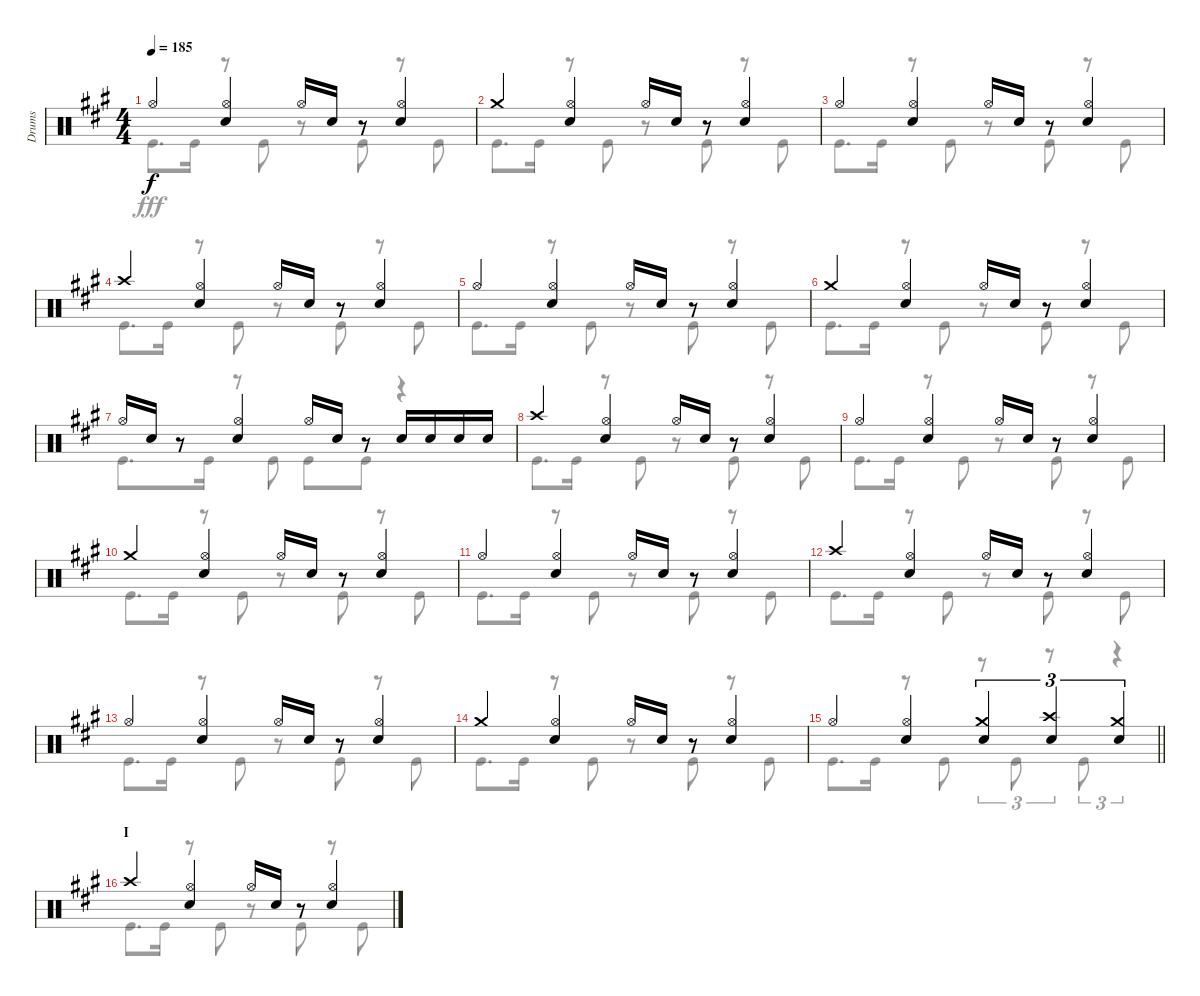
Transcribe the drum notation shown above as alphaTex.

\track ("Drums" "Drums") {instrument percussion}
\staff {score}
\articulation defaults
\voice
\ts (4 4)
\tempo 185
\clef neutral
\ks a "Hi-Hat (open)".4{dy f}
("Hi-Hat (open)" "Snare (hit) 2").4 "Hi-Hat (open)".16 "Snare (hit) 2".16 r.8 ("Hi-Hat (open)" "Snare (hit) 2").4 |
"Crash medium (hit)".4 ("Hi-Hat (open)" "Snare (hit) 2").4 "Hi-Hat (open)".16 "Snare (hit) 2".16 r.8 ("Hi-Hat (open)" "Snare (hit) 2").4 |
"Hi-Hat (open)".4 ("Hi-Hat (open)" "Snare (hit) 2").4 "Hi-Hat (open)".16 "Snare (hit) 2".16 r.8 ("Hi-Hat (open)" "Snare (hit) 2").4 |
"Crash high (hit)".4 ("Hi-Hat (open)" "Snare (hit) 2").4 "Hi-Hat (open)".16 "Snare (hit) 2".16 r.8 ("Hi-Hat (open)" "Snare (hit) 2").4 |
"Hi-Hat (open)".4 ("Hi-Hat (open)" "Snare (hit) 2").4 "Hi-Hat (open)".16 "Snare (hit) 2".16 r.8 ("Hi-Hat (open)" "Snare (hit) 2").4 |
"Crash medium (hit)".4 ("Hi-Hat (open)" "Snare (hit) 2").4 "Hi-Hat (open)".16 "Snare (hit) 2".16 r.8 ("Hi-Hat (open)" "Snare (hit) 2").4 |
"Hi-Hat (open)".16 "Snare (hit) 2".16 r.8 ("Hi-Hat (open)" "Snare (hit) 2").4 "Hi-Hat (open)".16 "Snare (hit) 2".16 r.8 "Snare (hit) 2".16 "Snare (hit) 2".16 "Snare (hit) 2".16 "Snare (hit) 2".16 |
"Crash high (hit)".4 ("Hi-Hat (open)" "Snare (hit) 2").4 "Hi-Hat (open)".16 "Snare (hit) 2".16 r.8 ("Hi-Hat (open)" "Snare (hit) 2").4 |
"Hi-Hat (open)".4 ("Hi-Hat (open)" "Snare (hit) 2").4 "Hi-Hat (open)".16 "Snare (hit) 2".16 r.8 ("Hi-Hat (open)" "Snare (hit) 2").4 |
"Crash medium (hit)".4 ("Hi-Hat (open)" "Snare (hit) 2").4 "Hi-Hat (open)".16 "Snare (hit) 2".16 r.8 ("Hi-Hat (open)" "Snare (hit) 2").4 |
"Hi-Hat (open)".4 ("Hi-Hat (open)" "Snare (hit) 2").4 "Hi-Hat (open)".16 "Snare (hit) 2".16 r.8 ("Hi-Hat (open)" "Snare (hit) 2").4 |
"Crash high (hit)".4 ("Hi-Hat (open)" "Snare (hit) 2").4 "Hi-Hat (open)".16 "Snare (hit) 2".16 r.8 ("Hi-Hat (open)" "Snare (hit) 2").4 |
"Hi-Hat (open)".4 ("Hi-Hat (open)" "Snare (hit) 2").4 "Hi-Hat (open)".16 "Snare (hit) 2".16 r.8 ("Hi-Hat (open)" "Snare (hit) 2").4 |
"Crash medium (hit)".4 ("Hi-Hat (open)" "Snare (hit) 2").4 "Hi-Hat (open)".16 "Snare (hit) 2".16 r.8 ("Hi-Hat (open)" "Snare (hit) 2").4 |
\barLineRight lightlight "Hi-Hat (open)".4
("Hi-Hat (open)" "Snare (hit) 2").4 ("Crash medium (hit)" "Snare (hit) 2").4{tu (3 2)} ("Crash high (hit)" "Snare (hit) 2").4{tu (3 2)} ("Crash medium (hit)" "Snare (hit) 2").4{tu (3 2)} |
\section ("" "I")
"Crash high (hit)".4 ("Hi-Hat (open)" "Snare (hit) 2").4 "Hi-Hat (open)".16 "Snare (hit) 2".16 r.8 ("Hi-Hat (open)" "Snare (hit) 2").4
\voice
\clef neutral
\ottava regular
\simile none
\ks a "Kick (hit)".8{d dy fff} "Kick (hit)".16
r.8 "Kick (hit)".8 r.8 "Kick (hit)".8 r.8 "Kick (hit)".8 |
"Kick (hit)".8{d} "Kick (hit)".16 r.8 "Kick (hit)".8 r.8 "Kick (hit)".8 r.8 "Kick (hit)".8 |
"Kick (hit)".8{d} "Kick (hit)".16 r.8 "Kick (hit)".8 r.8 "Kick (hit)".8 r.8 "Kick (hit)".8 |
"Kick (hit)".8{d} "Kick (hit)".16 r.8 "Kick (hit)".8 r.8 "Kick (hit)".8 r.8 "Kick (hit)".8 |
"Kick (hit)".8{d} "Kick (hit)".16 r.8 "Kick (hit)".8 r.8 "Kick (hit)".8 r.8 "Kick (hit)".8 |
"Kick (hit)".8{d} "Kick (hit)".16 r.8 "Kick (hit)".8 r.8 "Kick (hit)".8 r.8 "Kick (hit)".8 |
"Kick (hit)".8{d} "Kick (hit)".16 r.8 "Kick (hit)".8 "Kick (hit)".8 "Kick (hit)".8 r.4 |
"Kick (hit)".8{d} "Kick (hit)".16 r.8 "Kick (hit)".8 r.8 "Kick (hit)".8 r.8 "Kick (hit)".8 |
"Kick (hit)".8{d} "Kick (hit)".16 r.8 "Kick (hit)".8 r.8 "Kick (hit)".8 r.8 "Kick (hit)".8 |
"Kick (hit)".8{d} "Kick (hit)".16 r.8 "Kick (hit)".8 r.8 "Kick (hit)".8 r.8 "Kick (hit)".8 |
"Kick (hit)".8{d} "Kick (hit)".16 r.8 "Kick (hit)".8 r.8 "Kick (hit)".8 r.8 "Kick (hit)".8 |
"Kick (hit)".8{d} "Kick (hit)".16 r.8 "Kick (hit)".8 r.8 "Kick (hit)".8 r.8 "Kick (hit)".8 |
"Kick (hit)".8{d} "Kick (hit)".16 r.8 "Kick (hit)".8 r.8 "Kick (hit)".8 r.8 "Kick (hit)".8 |
"Kick (hit)".8{d} "Kick (hit)".16 r.8 "Kick (hit)".8 r.8 "Kick (hit)".8 r.8 "Kick (hit)".8 |
\barLineRight lightlight "Kick (hit)".8{d} "Kick (hit)".16
r.8 "Kick (hit)".8 r.8{tu (3 2)} "Kick (hit)".8{tu (3 2)} r.8{tu (3 2)} "Kick (hit)".8{tu (3 2)} r.4{tu (3 2)} |
"Kick (hit)".8{d} "Kick (hit)".16 r.8 "Kick (hit)".8 r.8 "Kick (hit)".8 r.8 "Kick (hit)".8
